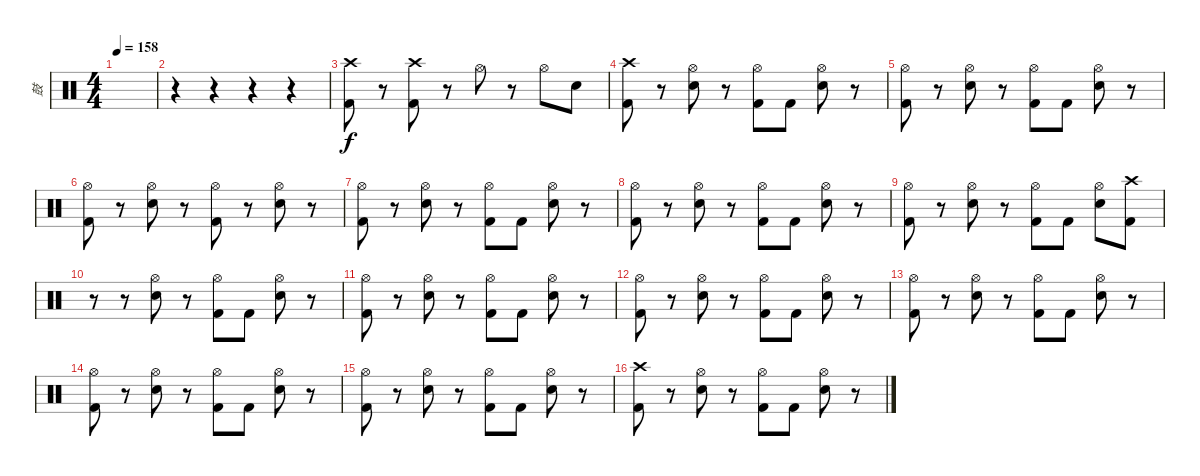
\track ("鼓" "鼓") {instrument percussion}
\staff {score}
\articulation defaults
\ts (4 4)
\tempo 158
\clef neutral
\ks c
|
r.4 r.4 r.4 r.4 |
("Crash high (hit)" "Kick (hit) 2").8 r.8 ("Crash high (hit)" "Kick (hit) 2").8 r.8 "Hi-Hat (open)".8 r.8 "Hi-Hat (open)".8 "Electric Snare (hit)".8 |
("Crash high (hit)" "Kick (hit) 2").8 r.8 ("Hi-Hat (open)" "Electric Snare (hit)").8 r.8 ("Hi-Hat (open)" "Kick (hit) 2").8 "Kick (hit) 2".8 ("Hi-Hat (open)" "Electric Snare (hit)").8 r.8 |
("Hi-Hat (open)" "Kick (hit) 2").8 r.8 ("Hi-Hat (open)" "Electric Snare (hit)").8 r.8 ("Hi-Hat (open)" "Kick (hit) 2").8 "Kick (hit) 2".8 ("Hi-Hat (open)" "Electric Snare (hit)").8 r.8 |
("Hi-Hat (open)" "Kick (hit) 2").8 r.8 ("Hi-Hat (open)" "Electric Snare (hit)").8 r.8 ("Hi-Hat (open)" "Kick (hit) 2").8 r.8 ("Hi-Hat (open)" "Electric Snare (hit)").8 r.8 |
("Hi-Hat (open)" "Kick (hit) 2").8 r.8 ("Hi-Hat (open)" "Electric Snare (hit)").8 r.8 ("Hi-Hat (open)" "Kick (hit) 2").8 "Kick (hit) 2".8 ("Hi-Hat (open)" "Electric Snare (hit)").8 r.8 |
("Hi-Hat (open)" "Kick (hit) 2").8 r.8 ("Hi-Hat (open)" "Electric Snare (hit)").8 r.8 ("Hi-Hat (open)" "Kick (hit) 2").8 "Kick (hit) 2".8 ("Hi-Hat (open)" "Electric Snare (hit)").8 r.8 |
("Hi-Hat (open)" "Kick (hit) 2").8 r.8 ("Hi-Hat (open)" "Electric Snare (hit)").8 r.8 ("Hi-Hat (open)" "Kick (hit) 2").8 "Kick (hit) 2".8 ("Hi-Hat (open)" "Electric Snare (hit)").8 ("Crash high (hit)" "Kick (hit) 2").8 |
r.8 r.8 ("Hi-Hat (open)" "Electric Snare (hit)").8 r.8 ("Hi-Hat (open)" "Kick (hit) 2").8 "Kick (hit) 2".8 ("Hi-Hat (open)" "Electric Snare (hit)").8 r.8 |
("Hi-Hat (open)" "Kick (hit) 2").8 r.8 ("Hi-Hat (open)" "Electric Snare (hit)").8 r.8 ("Hi-Hat (open)" "Kick (hit) 2").8 "Kick (hit) 2".8 ("Hi-Hat (open)" "Electric Snare (hit)").8 r.8 |
("Hi-Hat (open)" "Kick (hit) 2").8 r.8 ("Hi-Hat (open)" "Electric Snare (hit)").8 r.8 ("Hi-Hat (open)" "Kick (hit) 2").8 "Kick (hit) 2".8 ("Hi-Hat (open)" "Electric Snare (hit)").8 r.8 |
("Hi-Hat (open)" "Kick (hit) 2").8 r.8 ("Hi-Hat (open)" "Electric Snare (hit)").8 r.8 ("Hi-Hat (open)" "Kick (hit) 2").8 "Kick (hit) 2".8 ("Hi-Hat (open)" "Electric Snare (hit)").8 r.8 |
("Hi-Hat (open)" "Kick (hit) 2").8 r.8 ("Hi-Hat (open)" "Electric Snare (hit)").8 r.8 ("Hi-Hat (open)" "Kick (hit) 2").8 "Kick (hit) 2".8 ("Hi-Hat (open)" "Electric Snare (hit)").8 r.8 |
("Hi-Hat (open)" "Kick (hit) 2").8 r.8 ("Hi-Hat (open)" "Electric Snare (hit)").8 r.8 ("Hi-Hat (open)" "Kick (hit) 2").8 "Kick (hit) 2".8 ("Hi-Hat (open)" "Electric Snare (hit)").8 r.8 |
("Crash high (hit)" "Kick (hit) 2").8 r.8 ("Hi-Hat (open)" "Electric Snare (hit)").8 r.8 ("Hi-Hat (open)" "Kick (hit) 2").8 "Kick (hit) 2".8 ("Hi-Hat (open)" "Electric Snare (hit)").8 r.8
